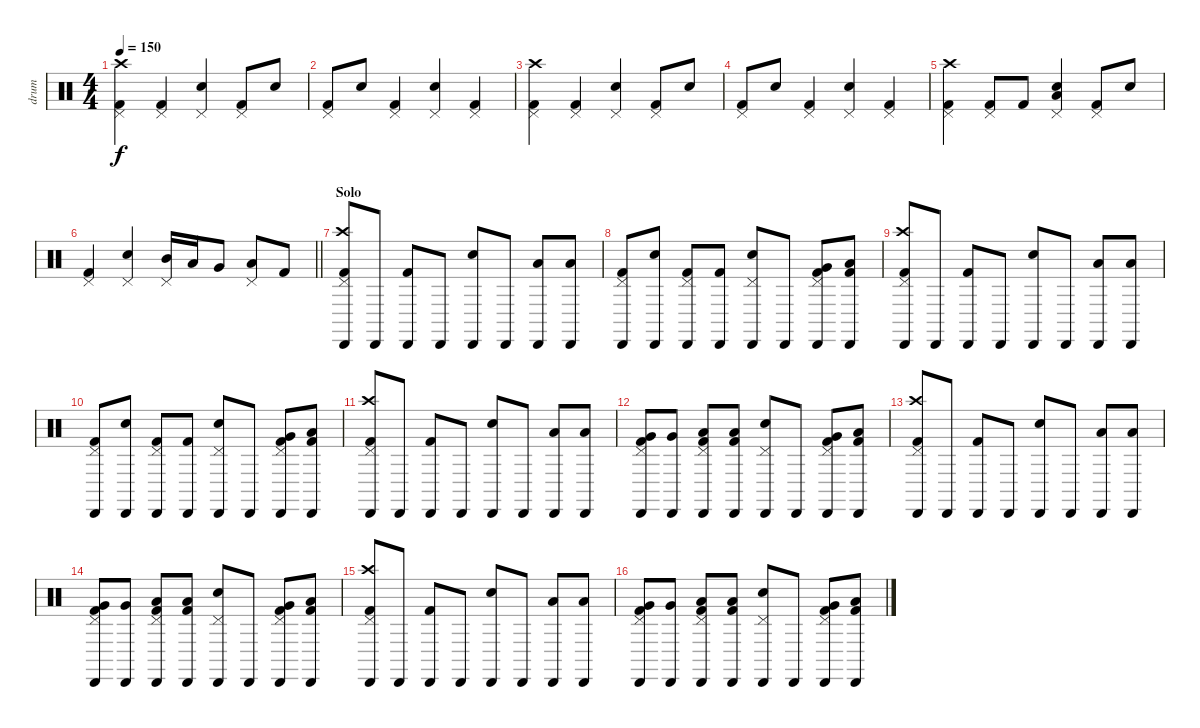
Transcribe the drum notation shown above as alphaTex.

\track ("drum" "drum") {instrument percussion}
\staff {score}
\articulation defaults
\ts (4 4)
\tempo 150
\clef neutral
\ks c
("Crash high (hit)" "Pedal Hi-Hat (hit)" "Kick (hit) 2").4{dy f} ("Pedal Hi-Hat (hit)" "Kick (hit) 2").4 ("Pedal Hi-Hat (hit)" "Electric Snare (hit)").4 ("Pedal Hi-Hat (hit)" "Kick (hit) 2").8 "Electric Snare (hit)".8 |
("Pedal Hi-Hat (hit)" "Kick (hit) 2").8 "Electric Snare (hit)".8 ("Pedal Hi-Hat (hit)" "Kick (hit) 2").4 ("Pedal Hi-Hat (hit)" "Electric Snare (hit)").4 ("Pedal Hi-Hat (hit)" "Kick (hit) 2").4 |
("Crash high (hit)" "Pedal Hi-Hat (hit)" "Kick (hit) 2").4 ("Pedal Hi-Hat (hit)" "Kick (hit) 2").4 ("Pedal Hi-Hat (hit)" "Electric Snare (hit)").4 ("Pedal Hi-Hat (hit)" "Kick (hit) 2").8 "Electric Snare (hit)".8 |
("Pedal Hi-Hat (hit)" "Kick (hit) 2").8 "Electric Snare (hit)".8 ("Pedal Hi-Hat (hit)" "Kick (hit) 2").4 ("Pedal Hi-Hat (hit)" "Electric Snare (hit)").4 ("Pedal Hi-Hat (hit)" "Kick (hit) 2").4 |
("Crash high (hit)" "Pedal Hi-Hat (hit)" "Kick (hit) 2").4 ("Pedal Hi-Hat (hit)" "Kick (hit) 2").8 "Kick (hit) 2".8 ("Pedal Hi-Hat (hit)" "Electric Snare (hit)" "Low Floor Tom (hit)").4 ("Pedal Hi-Hat (hit)" "Kick (hit) 2").8 "Electric Snare (hit)".8 |
\barLineRight lightlight
("Pedal Hi-Hat (hit)" "Kick (hit) 2").4 ("Pedal Hi-Hat (hit)" "Electric Snare (hit)").4 ("Pedal Hi-Hat (hit)" "Mid Tom (hit)").16 "Low Tom (hit)".16 "Very Low Tom (hit)".8 ("Pedal Hi-Hat (hit)" "Low Floor Tom (hit)").8 "Kick (hit) 2".8 |
\section ("" "Solo")
("Crash high (hit)" "Pedal Hi-Hat (hit)" "Kick (hit) 2" "Cabasa (hit)").8 "Cabasa (hit)".8 ("Kick (hit) 2" "Cabasa (hit)").8 "Cabasa (hit)".8 ("Electric Snare (hit)" "Cabasa (hit)").8 "Cabasa (hit)".8 ("Low Tom (hit)" "Cabasa (hit)").8 ("Low Tom (hit)" "Cabasa (hit)").8 |
("Pedal Hi-Hat (hit)" "Kick (hit) 2" "Cabasa (hit)").8 ("Electric Snare (hit)" "Cabasa (hit)").8 ("Pedal Hi-Hat (hit)" "Kick (hit) 2" "Cabasa (hit)").8 ("Kick (hit) 2" "Cabasa (hit)").8 ("Pedal Hi-Hat (hit)" "Electric Snare (hit)" "Cabasa (hit)").8 "Cabasa (hit)".8 ("Pedal Hi-Hat (hit)" "Very Low Tom (hit)" "Kick (hit) 2" "Cabasa (hit)").8 ("Low Floor Tom (hit)" "Kick (hit) 2" "Cabasa (hit)").8 |
("Crash high (hit)" "Pedal Hi-Hat (hit)" "Kick (hit) 2" "Cabasa (hit)").8 "Cabasa (hit)".8 ("Kick (hit) 2" "Cabasa (hit)").8 "Cabasa (hit)".8 ("Electric Snare (hit)" "Cabasa (hit)").8 "Cabasa (hit)".8 ("Low Tom (hit)" "Cabasa (hit)").8 ("Low Tom (hit)" "Cabasa (hit)").8 |
("Pedal Hi-Hat (hit)" "Kick (hit) 2" "Cabasa (hit)").8 ("Electric Snare (hit)" "Cabasa (hit)").8 ("Pedal Hi-Hat (hit)" "Kick (hit) 2" "Cabasa (hit)").8 ("Kick (hit) 2" "Cabasa (hit)").8 ("Pedal Hi-Hat (hit)" "Electric Snare (hit)" "Cabasa (hit)").8 "Cabasa (hit)".8 ("Pedal Hi-Hat (hit)" "Very Low Tom (hit)" "Kick (hit) 2" "Cabasa (hit)").8 ("Low Floor Tom (hit)" "Kick (hit) 2" "Cabasa (hit)").8 |
("Crash high (hit)" "Pedal Hi-Hat (hit)" "Kick (hit) 2" "Cabasa (hit)").8 "Cabasa (hit)".8 ("Kick (hit) 2" "Cabasa (hit)").8 "Cabasa (hit)".8 ("Electric Snare (hit)" "Cabasa (hit)").8 "Cabasa (hit)".8 ("Low Tom (hit)" "Cabasa (hit)").8 ("Low Tom (hit)" "Cabasa (hit)").8 |
("Pedal Hi-Hat (hit)" "Very Low Tom (hit)" "Kick (hit) 2" "Cabasa (hit)").8 ("Very Low Tom (hit)" "Cabasa (hit)").8 ("Pedal Hi-Hat (hit)" "Low Floor Tom (hit)" "Kick (hit) 2" "Cabasa (hit)").8 ("Low Floor Tom (hit)" "Kick (hit) 2" "Cabasa (hit)").8 ("Pedal Hi-Hat (hit)" "Electric Snare (hit)" "Cabasa (hit)").8 "Cabasa (hit)".8 ("Pedal Hi-Hat (hit)" "Very Low Tom (hit)" "Kick (hit) 2" "Cabasa (hit)").8 ("Low Floor Tom (hit)" "Kick (hit) 2" "Cabasa (hit)").8 |
("Crash high (hit)" "Pedal Hi-Hat (hit)" "Kick (hit) 2" "Cabasa (hit)").8 "Cabasa (hit)".8 ("Kick (hit) 2" "Cabasa (hit)").8 "Cabasa (hit)".8 ("Electric Snare (hit)" "Cabasa (hit)").8 "Cabasa (hit)".8 ("Low Tom (hit)" "Cabasa (hit)").8 ("Low Tom (hit)" "Cabasa (hit)").8 |
("Pedal Hi-Hat (hit)" "Very Low Tom (hit)" "Kick (hit) 2" "Cabasa (hit)").8 ("Very Low Tom (hit)" "Cabasa (hit)").8 ("Pedal Hi-Hat (hit)" "Low Floor Tom (hit)" "Kick (hit) 2" "Cabasa (hit)").8 ("Low Floor Tom (hit)" "Kick (hit) 2" "Cabasa (hit)").8 ("Pedal Hi-Hat (hit)" "Electric Snare (hit)" "Cabasa (hit)").8 "Cabasa (hit)".8 ("Pedal Hi-Hat (hit)" "Very Low Tom (hit)" "Kick (hit) 2" "Cabasa (hit)").8 ("Low Floor Tom (hit)" "Kick (hit) 2" "Cabasa (hit)").8 |
("Crash high (hit)" "Pedal Hi-Hat (hit)" "Kick (hit) 2" "Cabasa (hit)").8 "Cabasa (hit)".8 ("Kick (hit) 2" "Cabasa (hit)").8 "Cabasa (hit)".8 ("Electric Snare (hit)" "Cabasa (hit)").8 "Cabasa (hit)".8 ("Low Tom (hit)" "Cabasa (hit)").8 ("Low Tom (hit)" "Cabasa (hit)").8 |
("Pedal Hi-Hat (hit)" "Very Low Tom (hit)" "Kick (hit) 2" "Cabasa (hit)").8 ("Very Low Tom (hit)" "Cabasa (hit)").8 ("Pedal Hi-Hat (hit)" "Low Floor Tom (hit)" "Kick (hit) 2" "Cabasa (hit)").8 ("Low Floor Tom (hit)" "Kick (hit) 2" "Cabasa (hit)").8 ("Pedal Hi-Hat (hit)" "Electric Snare (hit)" "Cabasa (hit)").8 "Cabasa (hit)".8 ("Pedal Hi-Hat (hit)" "Very Low Tom (hit)" "Kick (hit) 2" "Cabasa (hit)").8 ("Low Floor Tom (hit)" "Kick (hit) 2" "Cabasa (hit)").8
